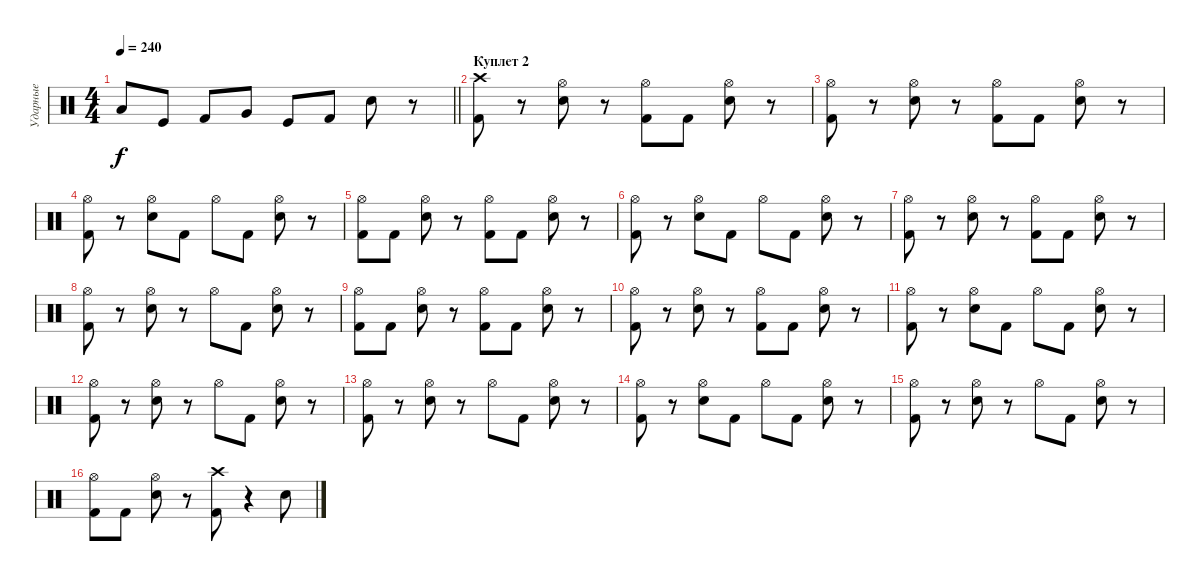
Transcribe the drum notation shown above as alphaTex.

\track ("Ударные" "Ударные") {instrument percussion}
\staff {score}
\articulation defaults
\ts (4 4)
\tempo 240
\clef neutral
\barLineRight lightlight
\ks c "Low Tom (hit)".8{dy f} "Kick (hit)".8 "Kick (hit) 2".8 "Very Low Tom (hit)".8 "Kick (hit)".8 "Kick (hit) 2".8 "Snare (hit) 2".8
r.8 |
\section ("" "Куплет 2")
("Kick (hit) 2" "Crash high (hit)").8 r.8 ("Hi-Hat (open)" "Snare (hit) 2").8 r.8 ("Kick (hit) 2" "Hi-Hat (open)").8 "Kick (hit) 2".8 ("Snare (hit) 2" "Hi-Hat (open)").8 r.8 |
("Hi-Hat (open)" "Kick (hit) 2").8 r.8 ("Hi-Hat (open)" "Snare (hit) 2").8 r.8 ("Hi-Hat (open)" "Kick (hit) 2").8 "Kick (hit) 2".8 ("Hi-Hat (open)" "Snare (hit) 2").8 r.8 |
("Hi-Hat (open)" "Kick (hit) 2").8 r.8 ("Hi-Hat (open)" "Snare (hit) 2").8 "Kick (hit) 2".8 "Hi-Hat (open)".8 "Kick (hit) 2".8 ("Snare (hit) 2" "Hi-Hat (open)").8 r.8 |
("Kick (hit) 2" "Hi-Hat (open)").8 "Kick (hit) 2".8 ("Hi-Hat (open)" "Snare (hit) 2").8 r.8 ("Hi-Hat (open)" "Kick (hit) 2").8 "Kick (hit) 2".8 ("Hi-Hat (open)" "Snare (hit) 2").8 r.8 |
("Kick (hit) 2" "Hi-Hat (open)").8 r.8 ("Hi-Hat (open)" "Snare (hit) 2").8 "Kick (hit) 2".8 "Hi-Hat (open)".8 "Kick (hit) 2".8 ("Snare (hit) 2" "Hi-Hat (open)").8 r.8 |
("Kick (hit) 2" "Hi-Hat (open)").8 r.8 ("Snare (hit) 2" "Hi-Hat (open)").8 r.8 ("Kick (hit) 2" "Hi-Hat (open)").8 "Kick (hit) 2".8 ("Snare (hit) 2" "Hi-Hat (open)").8 r.8 |
("Kick (hit) 2" "Hi-Hat (open)").8 r.8 ("Snare (hit) 2" "Hi-Hat (open)").8 r.8 "Hi-Hat (open)".8 "Kick (hit) 2".8 ("Hi-Hat (open)" "Snare (hit) 2").8 r.8 |
("Hi-Hat (open)" "Kick (hit) 2").8 "Kick (hit) 2".8 ("Snare (hit) 2" "Hi-Hat (open)").8 r.8 ("Kick (hit) 2" "Hi-Hat (open)").8 "Kick (hit) 2".8 ("Hi-Hat (open)" "Snare (hit) 2").8 r.8 |
("Kick (hit) 2" "Hi-Hat (open)").8 r.8 ("Snare (hit) 2" "Hi-Hat (open)").8 r.8 ("Kick (hit) 2" "Hi-Hat (open)").8 "Kick (hit) 2".8 ("Snare (hit) 2" "Hi-Hat (open)").8 r.8 |
("Hi-Hat (open)" "Kick (hit) 2").8 r.8 ("Hi-Hat (open)" "Snare (hit) 2").8 "Kick (hit) 2".8 "Hi-Hat (open)".8 "Kick (hit) 2".8 ("Snare (hit) 2" "Hi-Hat (open)").8 r.8 |
("Hi-Hat (open)" "Kick (hit) 2").8 r.8 ("Hi-Hat (open)" "Snare (hit) 2").8 r.8 "Hi-Hat (open)".8 "Kick (hit) 2".8 ("Hi-Hat (open)" "Snare (hit) 2").8 r.8 |
("Hi-Hat (open)" "Kick (hit) 2").8 r.8 ("Snare (hit) 2" "Hi-Hat (open)").8 r.8 "Hi-Hat (open)".8 "Kick (hit) 2".8 ("Hi-Hat (open)" "Snare (hit) 2").8 r.8 |
("Hi-Hat (open)" "Kick (hit) 2").8 r.8 ("Snare (hit) 2" "Hi-Hat (open)").8 "Kick (hit) 2".8 "Hi-Hat (open)".8 "Kick (hit) 2".8 ("Hi-Hat (open)" "Snare (hit) 2").8 r.8 |
("Kick (hit) 2" "Hi-Hat (open)").8 r.8 ("Snare (hit) 2" "Hi-Hat (open)").8 r.8 "Hi-Hat (open)".8 "Kick (hit) 2".8 ("Snare (hit) 2" "Hi-Hat (open)").8 r.8 |
("Kick (hit) 2" "Hi-Hat (open)").8 "Kick (hit) 2".8 ("Snare (hit) 2" "Hi-Hat (open)").8 r.8 ("Crash high (hit)" "Kick (hit) 2").8 r.4 "Snare (hit) 2".8
